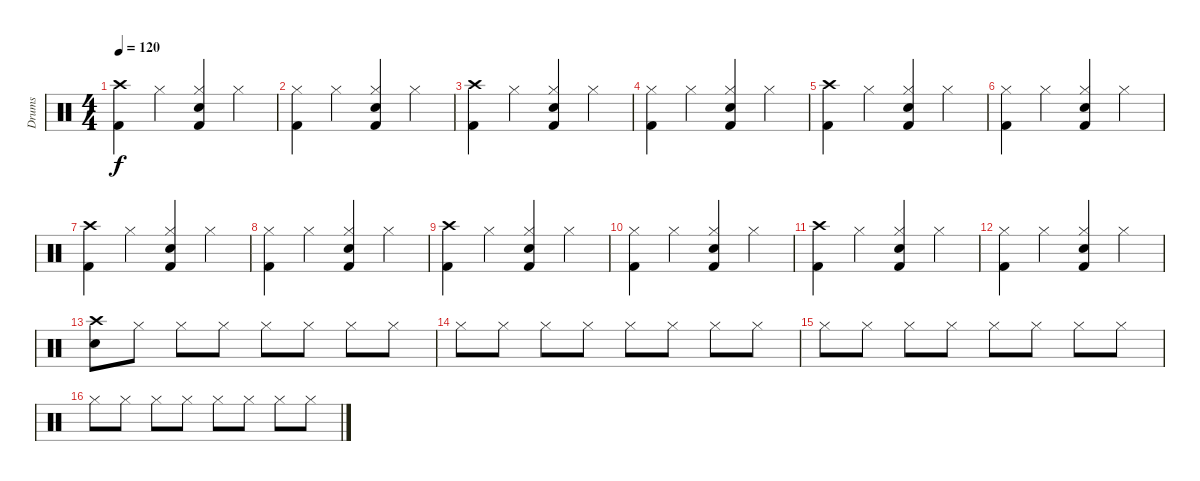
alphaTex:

\track ("Drums" "Drums") {instrument percussion}
\staff {score}
\articulation defaults
\ts (4 4)
\tempo 120
\clef neutral
\ks c
("Crash high (hit)" "Kick (hit) 2").4{dy f} "Hi-Hat (closed)".4 ("Hi-Hat (closed)" "Electric Snare (hit)" "Kick (hit) 2").4 "Hi-Hat (closed)".4 |
("Hi-Hat (closed)" "Kick (hit) 2").4 "Hi-Hat (closed)".4 ("Hi-Hat (closed)" "Electric Snare (hit)" "Kick (hit) 2").4 "Hi-Hat (closed)".4 |
("Crash high (hit)" "Kick (hit) 2").4 "Hi-Hat (closed)".4 ("Hi-Hat (closed)" "Electric Snare (hit)" "Kick (hit) 2").4 "Hi-Hat (closed)".4 |
("Hi-Hat (closed)" "Kick (hit) 2").4 "Hi-Hat (closed)".4 ("Hi-Hat (closed)" "Electric Snare (hit)" "Kick (hit) 2").4 "Hi-Hat (closed)".4 |
("Crash high (hit)" "Kick (hit) 2").4 "Hi-Hat (closed)".4 ("Hi-Hat (closed)" "Electric Snare (hit)" "Kick (hit) 2").4 "Hi-Hat (closed)".4 |
("Hi-Hat (closed)" "Kick (hit) 2").4 "Hi-Hat (closed)".4 ("Hi-Hat (closed)" "Electric Snare (hit)" "Kick (hit) 2").4 "Hi-Hat (closed)".4 |
("Crash high (hit)" "Kick (hit) 2").4 "Hi-Hat (closed)".4 ("Hi-Hat (closed)" "Electric Snare (hit)" "Kick (hit) 2").4 "Hi-Hat (closed)".4 |
("Hi-Hat (closed)" "Kick (hit) 2").4 "Hi-Hat (closed)".4 ("Hi-Hat (closed)" "Electric Snare (hit)" "Kick (hit) 2").4 "Hi-Hat (closed)".4 |
("Crash high (hit)" "Kick (hit) 2").4 "Hi-Hat (closed)".4 ("Hi-Hat (closed)" "Electric Snare (hit)" "Kick (hit) 2").4 "Hi-Hat (closed)".4 |
("Hi-Hat (closed)" "Kick (hit) 2").4 "Hi-Hat (closed)".4 ("Hi-Hat (closed)" "Electric Snare (hit)" "Kick (hit) 2").4 "Hi-Hat (closed)".4 |
("Crash high (hit)" "Kick (hit) 2").4 "Hi-Hat (closed)".4 ("Hi-Hat (closed)" "Electric Snare (hit)" "Kick (hit) 2").4 "Hi-Hat (closed)".4 |
("Hi-Hat (closed)" "Kick (hit) 2").4 "Hi-Hat (closed)".4 ("Hi-Hat (closed)" "Electric Snare (hit)" "Kick (hit) 2").4 "Hi-Hat (closed)".4 |
("Crash high (hit)" "Electric Snare (hit)").8 "Hi-Hat (closed)".8 "Hi-Hat (closed)".8 "Hi-Hat (closed)".8 "Hi-Hat (closed)".8 "Hi-Hat (closed)".8 "Hi-Hat (closed)".8{volume 4} "Hi-Hat (closed)".8 |
"Hi-Hat (closed)".8 "Hi-Hat (closed)".8 "Hi-Hat (closed)".8 "Hi-Hat (closed)".8 "Hi-Hat (closed)".8 "Hi-Hat (closed)".8 "Hi-Hat (closed)".8 "Hi-Hat (closed)".8 |
"Hi-Hat (closed)".8 "Hi-Hat (closed)".8 "Hi-Hat (closed)".8 "Hi-Hat (closed)".8 "Hi-Hat (closed)".8 "Hi-Hat (closed)".8 "Hi-Hat (closed)".8 "Hi-Hat (closed)".8 |
"Hi-Hat (closed)".8 "Hi-Hat (closed)".8 "Hi-Hat (closed)".8 "Hi-Hat (closed)".8 "Hi-Hat (closed)".8 "Hi-Hat (closed)".8 "Hi-Hat (closed)".8 "Hi-Hat (closed)".8
